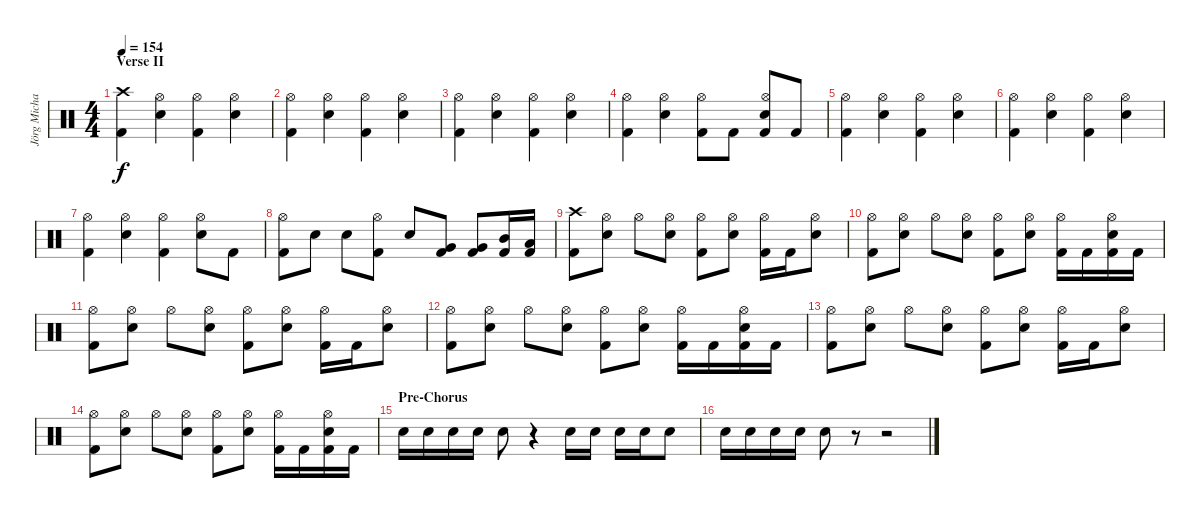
\track ("Jörg Michael - Drums" "Jörg Micha") {instrument percussion}
\staff {score}
\articulation defaults
\ts (4 4)
\section ("" "Verse II")
\tempo 154
\clef neutral
\ks c
("Crash high (hit)" "Kick (hit) 2").4{dy f} ("Hi-Hat (open)" "Electric Snare (hit)").4 ("Hi-Hat (open)" "Kick (hit) 2").4 ("Hi-Hat (open)" "Electric Snare (hit)").4 |
("Hi-Hat (open)" "Kick (hit) 2").4 ("Hi-Hat (open)" "Electric Snare (hit)").4 ("Hi-Hat (open)" "Kick (hit) 2").4 ("Hi-Hat (open)" "Electric Snare (hit)").4 |
("Hi-Hat (open)" "Kick (hit) 2").4 ("Hi-Hat (open)" "Electric Snare (hit)").4 ("Hi-Hat (open)" "Kick (hit) 2").4 ("Hi-Hat (open)" "Electric Snare (hit)").4 |
("Hi-Hat (open)" "Kick (hit) 2").4 ("Hi-Hat (open)" "Electric Snare (hit)").4 ("Hi-Hat (open)" "Kick (hit) 2").8 "Kick (hit) 2".8 ("Hi-Hat (open)" "Electric Snare (hit)" "Kick (hit) 2").8 "Kick (hit) 2".8 |
("Hi-Hat (open)" "Kick (hit) 2").4 ("Hi-Hat (open)" "Electric Snare (hit)").4 ("Hi-Hat (open)" "Kick (hit) 2").4 ("Hi-Hat (open)" "Electric Snare (hit)").4 |
("Hi-Hat (open)" "Kick (hit) 2").4 ("Hi-Hat (open)" "Electric Snare (hit)").4 ("Hi-Hat (open)" "Kick (hit) 2").4 ("Hi-Hat (open)" "Electric Snare (hit)").4 |
("Hi-Hat (open)" "Kick (hit) 2").4 ("Hi-Hat (open)" "Electric Snare (hit)").4 ("Hi-Hat (open)" "Kick (hit) 2").4 ("Hi-Hat (open)" "Electric Snare (hit)").8 "Kick (hit) 2".8 |
("Hi-Hat (open)" "Kick (hit) 2").8 "Electric Snare (hit)".8 "Electric Snare (hit)".8 ("Hi-Hat (open)" "Kick (hit) 2").8 "Electric Snare (hit)".8 ("Very Low Tom (hit)" "Kick (hit) 2").8 ("Very Low Tom (hit)" "Kick (hit) 2").8 ("Mid Tom (hit)" "Kick (hit) 2").16 ("Low Tom (hit)" "Kick (hit) 2").16 |
("Crash high (hit)" "Kick (hit) 2").8 ("Hi-Hat (open)" "Electric Snare (hit)").8 "Hi-Hat (open)".8 ("Hi-Hat (open)" "Electric Snare (hit)").8 ("Hi-Hat (open)" "Kick (hit) 2").8 ("Hi-Hat (open)" "Electric Snare (hit)").8 ("Hi-Hat (open)" "Kick (hit) 2").16 "Kick (hit) 2".16 ("Hi-Hat (open)" "Electric Snare (hit)").8 |
("Hi-Hat (open)" "Kick (hit) 2").8 ("Hi-Hat (open)" "Electric Snare (hit)").8 "Hi-Hat (open)".8 ("Hi-Hat (open)" "Electric Snare (hit)").8 ("Hi-Hat (open)" "Kick (hit) 2").8 ("Hi-Hat (open)" "Electric Snare (hit)").8 ("Hi-Hat (open)" "Kick (hit) 2").16 "Kick (hit) 2".16 ("Hi-Hat (open)" "Electric Snare (hit)" "Kick (hit) 2").16 "Kick (hit) 2".16 |
("Hi-Hat (open)" "Kick (hit) 2").8 ("Hi-Hat (open)" "Electric Snare (hit)").8 "Hi-Hat (open)".8 ("Hi-Hat (open)" "Electric Snare (hit)").8 ("Hi-Hat (open)" "Kick (hit) 2").8 ("Hi-Hat (open)" "Electric Snare (hit)").8 ("Hi-Hat (open)" "Kick (hit) 2").16 "Kick (hit) 2".16 ("Hi-Hat (open)" "Electric Snare (hit)").8 |
("Hi-Hat (open)" "Kick (hit) 2").8 ("Hi-Hat (open)" "Electric Snare (hit)").8 "Hi-Hat (open)".8 ("Hi-Hat (open)" "Electric Snare (hit)").8 ("Hi-Hat (open)" "Kick (hit) 2").8 ("Hi-Hat (open)" "Electric Snare (hit)").8 ("Hi-Hat (open)" "Kick (hit) 2").16 "Kick (hit) 2".16 ("Hi-Hat (open)" "Electric Snare (hit)" "Kick (hit) 2").16 "Kick (hit) 2".16 |
("Hi-Hat (open)" "Kick (hit) 2").8 ("Hi-Hat (open)" "Electric Snare (hit)").8 "Hi-Hat (open)".8 ("Hi-Hat (open)" "Electric Snare (hit)").8 ("Hi-Hat (open)" "Kick (hit) 2").8 ("Hi-Hat (open)" "Electric Snare (hit)").8 ("Hi-Hat (open)" "Kick (hit) 2").16 "Kick (hit) 2".16 ("Hi-Hat (open)" "Electric Snare (hit)").8 |
("Hi-Hat (open)" "Kick (hit) 2").8 ("Hi-Hat (open)" "Electric Snare (hit)").8 "Hi-Hat (open)".8 ("Hi-Hat (open)" "Electric Snare (hit)").8 ("Hi-Hat (open)" "Kick (hit) 2").8 ("Hi-Hat (open)" "Electric Snare (hit)").8 ("Hi-Hat (open)" "Kick (hit) 2").16 "Kick (hit) 2".16 ("Hi-Hat (open)" "Electric Snare (hit)" "Kick (hit) 2").16 "Kick (hit) 2".16 |
\section ("" "Pre-Chorus")
"Electric Snare (hit)".16 "Electric Snare (hit)".16 "Electric Snare (hit)".16 "Electric Snare (hit)".16 "Electric Snare (hit)".8 r.4 "Electric Snare (hit)".16 "Electric Snare (hit)".16 "Electric Snare (hit)".16 "Electric Snare (hit)".16 "Electric Snare (hit)".8 |
"Electric Snare (hit)".16 "Electric Snare (hit)".16 "Electric Snare (hit)".16 "Electric Snare (hit)".16 "Electric Snare (hit)".8 r.8 r.2
